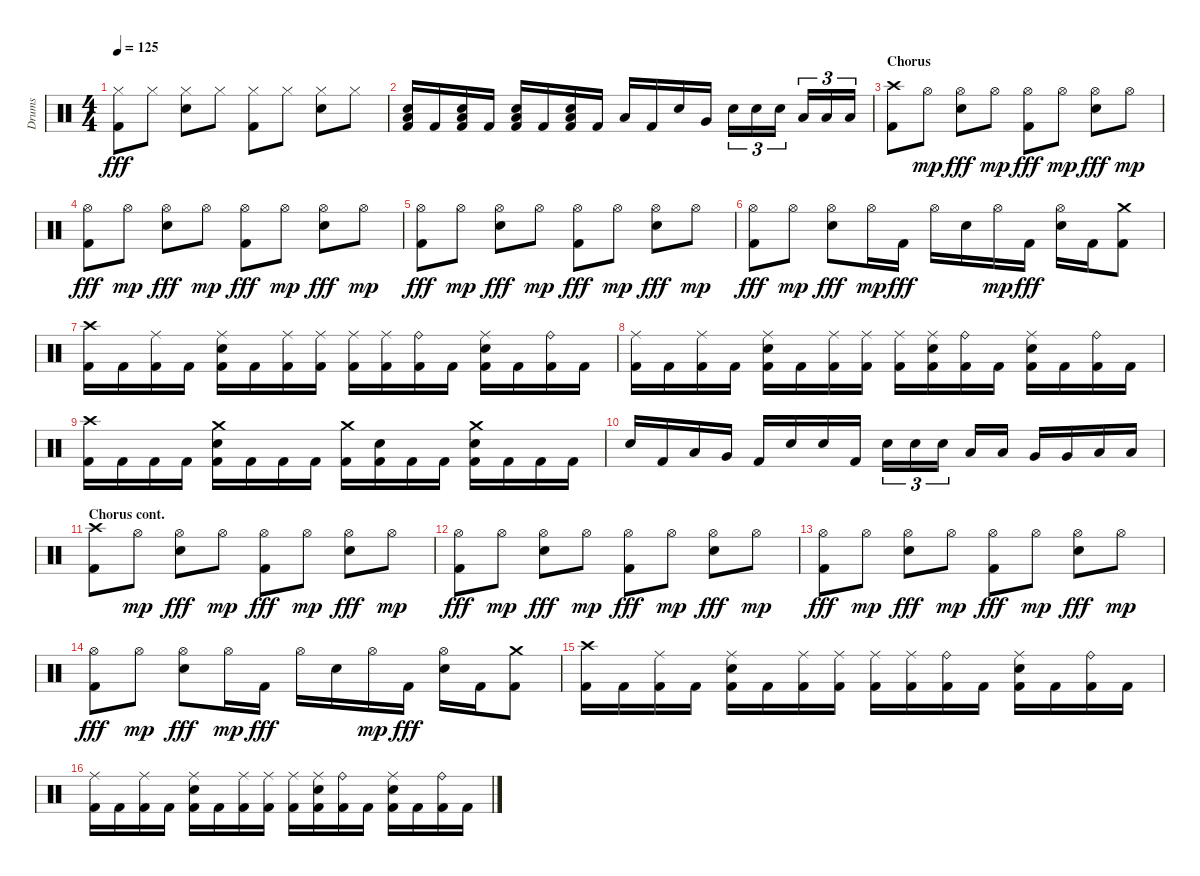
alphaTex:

\track ("Drums" "Drums") {instrument percussion}
\staff {score}
\articulation defaults
\ts (4 4)
\tempo 125
\clef neutral
\ks aminor
("Kick (hit) 2" "Hi-Hat (closed)").8{dy fff} "Hi-Hat (closed)".8 ("Snare (hit) 2" "Hi-Hat (closed)").8 "Hi-Hat (closed)".8 ("Kick (hit) 2" "Hi-Hat (closed)").8 "Hi-Hat (closed)".8 ("Snare (hit) 2" "Hi-Hat (closed)").8 "Hi-Hat (closed)".8 |
("Kick (hit) 2" "Snare (hit) 2" "Low Floor Tom (hit)").16 "Kick (hit) 2".16 ("Kick (hit) 2" "Snare (hit) 2" "Low Floor Tom (hit)").16 "Kick (hit) 2".16 ("Kick (hit) 2" "Snare (hit) 2" "Low Floor Tom (hit)").16 "Kick (hit) 2".16 ("Kick (hit) 2" "Snare (hit) 2" "Low Floor Tom (hit)").16 "Kick (hit) 2".16 "Low Tom (hit)".16 "Kick (hit) 2".16 "Snare (hit) 2".16 "Very Low Tom (hit)".16 "Snare (hit) 2".16{tu (3 2)} "Snare (hit) 2".16{tu (3 2)} "Snare (hit) 2".16{tu (3 2)} "Low Floor Tom (hit)".16{tu (3 2)} "Low Floor Tom (hit)".16{tu (3 2)} "Low Floor Tom (hit)".16{tu (3 2)} |
\section ("" "Chorus")
("Kick (hit) 2" "Crash high (hit)").8 "Hi-Hat (open)".8{dy mp} ("Snare (hit) 2" "Hi-Hat (open)").8{dy fff} "Hi-Hat (open)".8{dy mp} ("Kick (hit) 2" "Hi-Hat (open)").8{dy fff} "Hi-Hat (open)".8{dy mp} ("Snare (hit) 2" "Hi-Hat (open)").8{dy fff} "Hi-Hat (open)".8{dy mp} |
("Kick (hit) 2" "Hi-Hat (open)").8{dy fff} "Hi-Hat (open)".8{dy mp} ("Snare (hit) 2" "Hi-Hat (open)").8{dy fff} "Hi-Hat (open)".8{dy mp} ("Kick (hit) 2" "Hi-Hat (open)").8{dy fff} "Hi-Hat (open)".8{dy mp} ("Snare (hit) 2" "Hi-Hat (open)").8{dy fff} "Hi-Hat (open)".8{dy mp} |
("Kick (hit) 2" "Hi-Hat (open)").8{dy fff} "Hi-Hat (open)".8{dy mp} ("Snare (hit) 2" "Hi-Hat (open)").8{dy fff} "Hi-Hat (open)".8{dy mp} ("Kick (hit) 2" "Hi-Hat (open)").8{dy fff} "Hi-Hat (open)".8{dy mp} ("Snare (hit) 2" "Hi-Hat (open)").8{dy fff} "Hi-Hat (open)".8{dy mp} |
("Kick (hit) 2" "Hi-Hat (open)").8{dy fff} "Hi-Hat (open)".8{dy mp} ("Snare (hit) 2" "Hi-Hat (open)").8{dy fff} "Hi-Hat (open)".16{dy mp} "Kick (hit) 2".16{dy fff} "Hi-Hat (open)".16 "Snare (hit) 2".16 "Hi-Hat (open)".16{dy mp} "Kick (hit) 2".16{dy fff} ("Snare (hit) 2" "Hi-Hat (open)").16 "Kick (hit) 2".16 ("Kick (hit) 2" "Crash medium (hit)").8 |
("Kick (hit) 2" "Crash high (hit)").16 "Kick (hit) 2".16 ("Kick (hit) 2" "Ride (middle)").16 "Kick (hit) 2".16 ("Kick (hit) 2" "Snare (hit) 2" "Ride (middle)").16 "Kick (hit) 2".16 ("Kick (hit) 2" "Ride (middle)").16 ("Kick (hit) 2" "Ride (middle)").16 ("Kick (hit) 2" "Ride (middle)").16 ("Kick (hit) 2" "Ride (middle)").16 ("Kick (hit) 2" "Ride (bell)").16 "Kick (hit) 2".16 ("Kick (hit) 2" "Snare (hit) 2" "Ride (middle)").16 "Kick (hit) 2".16 ("Kick (hit) 2" "Ride (bell)").16 "Kick (hit) 2".16 |
("Kick (hit) 2" "Ride (middle)").16 "Kick (hit) 2".16 ("Kick (hit) 2" "Ride (middle)").16 "Kick (hit) 2".16 ("Kick (hit) 2" "Snare (hit) 2" "Ride (middle)").16 "Kick (hit) 2".16 ("Kick (hit) 2" "Ride (middle)").16 ("Kick (hit) 2" "Ride (middle)").16 ("Kick (hit) 2" "Ride (middle)").16 ("Kick (hit) 2" "Snare (hit) 2" "Ride (middle)").16 ("Kick (hit) 2" "Ride (bell)").16 "Kick (hit) 2".16 ("Kick (hit) 2" "Snare (hit) 2" "Ride (middle)").16 "Kick (hit) 2".16 ("Kick (hit) 2" "Ride (bell)").16 "Kick (hit) 2".16 |
("Kick (hit) 2" "Crash high (hit)").16 "Kick (hit) 2".16 "Kick (hit) 2".16 "Kick (hit) 2".16 ("Kick (hit) 2" "Snare (hit) 2" "Crash medium (hit)").16 "Kick (hit) 2".16 "Kick (hit) 2".16 "Kick (hit) 2".16 ("Kick (hit) 2" "Crash medium (hit)").16 ("Kick (hit) 2" "Snare (hit) 2").16 "Kick (hit) 2".16 "Kick (hit) 2".16 ("Kick (hit) 2" "Snare (hit) 2" "Crash medium (hit)").16 "Kick (hit) 2".16 "Kick (hit) 2".16 "Kick (hit) 2".16 |
"Snare (hit) 2".16 "Kick (hit) 2".16 "Low Tom (hit)".16 "Very Low Tom (hit)".16 "Kick (hit) 2".16 "Snare (hit) 2".16 "Snare (hit) 2".16 "Kick (hit) 2".16 "Snare (hit) 2".16{tu (3 2)} "Snare (hit) 2".16{tu (3 2)} "Snare (hit) 2".16{tu (3 2)} "Low Tom (hit)".16 "Low Tom (hit)".16 "Very Low Tom (hit)".16 "Very Low Tom (hit)".16 "Low Floor Tom (hit)".16 "Low Floor Tom (hit)".16 |
\section ("" "Chorus cont.")
("Kick (hit) 2" "Crash high (hit)").8 "Hi-Hat (open)".8{dy mp} ("Snare (hit) 2" "Hi-Hat (open)").8{dy fff} "Hi-Hat (open)".8{dy mp} ("Kick (hit) 2" "Hi-Hat (open)").8{dy fff} "Hi-Hat (open)".8{dy mp} ("Snare (hit) 2" "Hi-Hat (open)").8{dy fff} "Hi-Hat (open)".8{dy mp} |
("Kick (hit) 2" "Hi-Hat (open)").8{dy fff} "Hi-Hat (open)".8{dy mp} ("Snare (hit) 2" "Hi-Hat (open)").8{dy fff} "Hi-Hat (open)".8{dy mp} ("Kick (hit) 2" "Hi-Hat (open)").8{dy fff} "Hi-Hat (open)".8{dy mp} ("Snare (hit) 2" "Hi-Hat (open)").8{dy fff} "Hi-Hat (open)".8{dy mp} |
("Kick (hit) 2" "Hi-Hat (open)").8{dy fff} "Hi-Hat (open)".8{dy mp} ("Snare (hit) 2" "Hi-Hat (open)").8{dy fff} "Hi-Hat (open)".8{dy mp} ("Kick (hit) 2" "Hi-Hat (open)").8{dy fff} "Hi-Hat (open)".8{dy mp} ("Snare (hit) 2" "Hi-Hat (open)").8{dy fff} "Hi-Hat (open)".8{dy mp} |
("Kick (hit) 2" "Hi-Hat (open)").8{dy fff} "Hi-Hat (open)".8{dy mp} ("Snare (hit) 2" "Hi-Hat (open)").8{dy fff} "Hi-Hat (open)".16{dy mp} "Kick (hit) 2".16{dy fff} "Hi-Hat (open)".16 "Snare (hit) 2".16 "Hi-Hat (open)".16{dy mp} "Kick (hit) 2".16{dy fff} ("Snare (hit) 2" "Hi-Hat (open)").16 "Kick (hit) 2".16 ("Kick (hit) 2" "Crash medium (hit)").8 |
("Kick (hit) 2" "Crash high (hit)").16 "Kick (hit) 2".16 ("Kick (hit) 2" "Ride (middle)").16 "Kick (hit) 2".16 ("Kick (hit) 2" "Snare (hit) 2" "Ride (middle)").16 "Kick (hit) 2".16 ("Kick (hit) 2" "Ride (middle)").16 ("Kick (hit) 2" "Ride (middle)").16 ("Kick (hit) 2" "Ride (middle)").16 ("Kick (hit) 2" "Ride (middle)").16 ("Kick (hit) 2" "Ride (bell)").16 "Kick (hit) 2".16 ("Kick (hit) 2" "Snare (hit) 2" "Ride (middle)").16 "Kick (hit) 2".16 ("Kick (hit) 2" "Ride (bell)").16 "Kick (hit) 2".16 |
("Kick (hit) 2" "Ride (middle)").16 "Kick (hit) 2".16 ("Kick (hit) 2" "Ride (middle)").16 "Kick (hit) 2".16 ("Kick (hit) 2" "Snare (hit) 2" "Ride (middle)").16 "Kick (hit) 2".16 ("Kick (hit) 2" "Ride (middle)").16 ("Kick (hit) 2" "Ride (middle)").16 ("Kick (hit) 2" "Ride (middle)").16 ("Kick (hit) 2" "Snare (hit) 2" "Ride (middle)").16 ("Kick (hit) 2" "Ride (bell)").16 "Kick (hit) 2".16 ("Kick (hit) 2" "Snare (hit) 2" "Ride (middle)").16 "Kick (hit) 2".16 ("Kick (hit) 2" "Ride (bell)").16 "Kick (hit) 2".16
